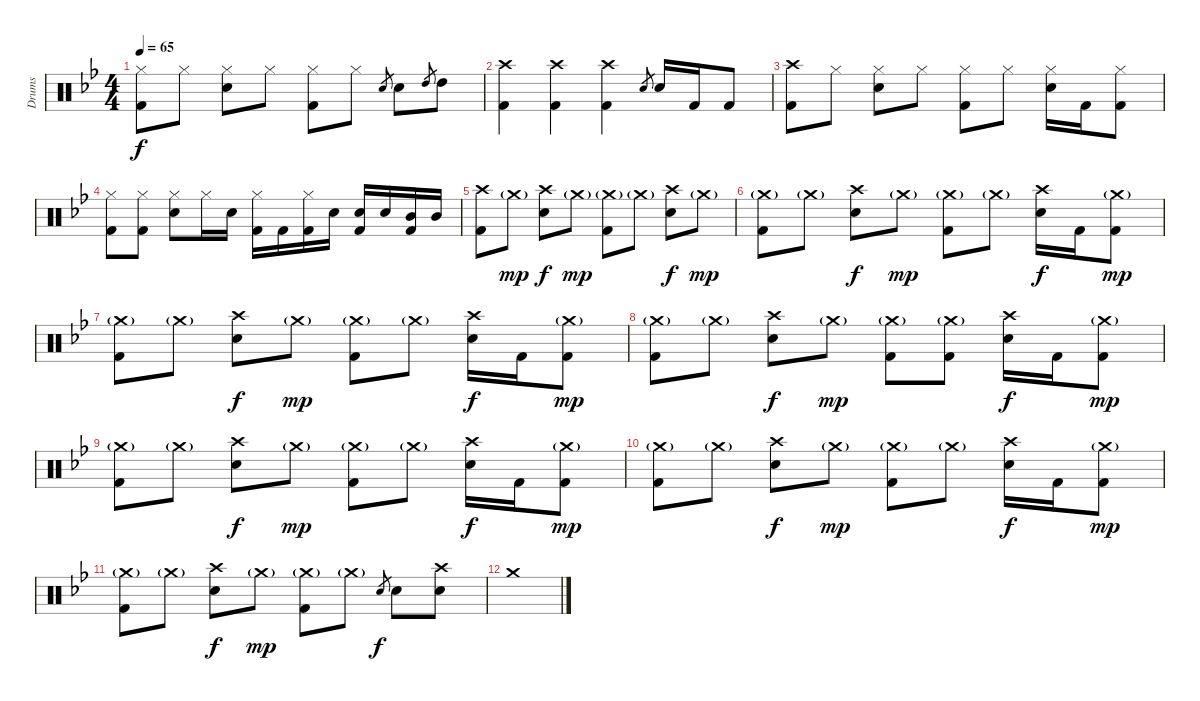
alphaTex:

\track ("Drums" "Drums") {instrument percussion}
\staff {score}
\articulation defaults
\ts (4 4)
\tempo 65
\clef neutral
\ks bb
("Hi-Hat (closed)" "Kick (hit) 2").8{dy f} "Hi-Hat (closed)".8 ("Hi-Hat (closed)" "Electric Snare (hit)").8 "Hi-Hat (closed)".8 ("Hi-Hat (closed)" "Kick (hit) 2").8 "Hi-Hat (closed)".8 "Electric Snare (hit)".8{gr} "Electric Snare (hit)".8 "High Tom (hit)".8{gr} "High Tom (hit)".8 |
("Crash high (hit)" "Kick (hit) 2").4 ("Crash high (hit)" "Kick (hit) 2").4 ("Crash high (hit)" "Kick (hit) 2").4 "Electric Snare (hit)".8{gr} "Electric Snare (hit)".16 "Kick (hit) 2".16 "Kick (hit) 2".8 |
("Crash high (hit)" "Kick (hit) 2").8 "Hi-Hat (closed)".8 ("Hi-Hat (closed)" "Electric Snare (hit)").8 "Hi-Hat (closed)".8 ("Hi-Hat (closed)" "Kick (hit) 2").8 "Hi-Hat (closed)".8 ("Hi-Hat (closed)" "Electric Snare (hit)").16 "Kick (hit) 2".16 ("Hi-Hat (closed)" "Kick (hit) 2").8 |
("Hi-Hat (closed)" "Kick (hit) 2").8 ("Hi-Hat (closed)" "Kick (hit) 2").8 ("Hi-Hat (closed)" "Electric Snare (hit)").8 "Hi-Hat (closed)".16 "Electric Snare (hit)".16 ("Hi-Hat (closed)" "Kick (hit) 2").16 "Kick (hit) 2".16 ("Hi-Hat (closed)" "Kick (hit) 2").16 "Electric Snare (hit)".16 ("Electric Snare (hit)" "Kick (hit) 2").16 "Electric Snare (hit)".16 ("Mid Tom (hit)" "Kick (hit) 2").16 "Mid Tom (hit)".16 |
("Crash high (hit)" "Kick (hit) 2").8 "Crash medium (hit)"{g}.8{dy mp} ("Crash high (hit)" "Electric Snare (hit)").8{dy f} "Crash medium (hit)"{g}.8{dy mp} ("Crash medium (hit)"{g} "Kick (hit) 2").8 "Crash medium (hit)"{g}.8 ("Crash high (hit)" "Electric Snare (hit)").8{dy f} "Crash medium (hit)"{g}.8{dy mp} |
("Crash medium (hit)"{g} "Kick (hit) 2").8 "Crash medium (hit)"{g}.8 ("Crash high (hit)" "Electric Snare (hit)").8{dy f} "Crash medium (hit)"{g}.8{dy mp} ("Crash medium (hit)"{g} "Kick (hit) 2").8 "Crash medium (hit)"{g}.8 ("Crash high (hit)" "Electric Snare (hit)").16{dy f} "Kick (hit) 2".16 ("Crash medium (hit)"{g} "Kick (hit) 2").8{dy mp} |
("Crash medium (hit)"{g} "Kick (hit) 2").8 "Crash medium (hit)"{g}.8 ("Crash high (hit)" "Electric Snare (hit)").8{dy f} "Crash medium (hit)"{g}.8{dy mp} ("Crash medium (hit)"{g} "Kick (hit) 2").8 "Crash medium (hit)"{g}.8 ("Crash high (hit)" "Electric Snare (hit)").16{dy f} "Kick (hit) 2".16 ("Crash medium (hit)"{g} "Kick (hit) 2").8{dy mp} |
("Crash medium (hit)"{g} "Kick (hit) 2").8 "Crash medium (hit)"{g}.8 ("Crash high (hit)" "Electric Snare (hit)").8{dy f} "Crash medium (hit)"{g}.8{dy mp} ("Crash medium (hit)"{g} "Kick (hit) 2").8 ("Crash medium (hit)"{g} "Kick (hit) 2").8 ("Crash high (hit)" "Electric Snare (hit)").16{dy f} "Kick (hit) 2".16 ("Crash medium (hit)"{g} "Kick (hit) 2").8{dy mp} |
("Crash medium (hit)"{g} "Kick (hit) 2").8 "Crash medium (hit)"{g}.8 ("Crash high (hit)" "Electric Snare (hit)").8{dy f} "Crash medium (hit)"{g}.8{dy mp} ("Crash medium (hit)"{g} "Kick (hit) 2").8 "Crash medium (hit)"{g}.8 ("Crash high (hit)" "Electric Snare (hit)").16{dy f} "Kick (hit) 2".16 ("Crash medium (hit)"{g} "Kick (hit) 2").8{dy mp} |
("Crash medium (hit)"{g} "Kick (hit) 2").8 "Crash medium (hit)"{g}.8 ("Crash high (hit)" "Electric Snare (hit)").8{dy f} "Crash medium (hit)"{g}.8{dy mp} ("Crash medium (hit)"{g} "Kick (hit) 2").8 "Crash medium (hit)"{g}.8 ("Crash high (hit)" "Electric Snare (hit)").16{dy f} "Kick (hit) 2".16 ("Crash medium (hit)"{g} "Kick (hit) 2").8{dy mp} |
("Crash medium (hit)"{g} "Kick (hit) 2").8 "Crash medium (hit)"{g}.8 ("Crash high (hit)" "Electric Snare (hit)").8{dy f} "Crash medium (hit)"{g}.8{dy mp} ("Crash medium (hit)"{g} "Kick (hit) 2").8 "Crash medium (hit)"{g}.8 "Electric Snare (hit)".8{gr dy f} "Electric Snare (hit)".8 ("Crash high (hit)" "Electric Snare (hit)").8 |
"Crash medium (hit)".1
